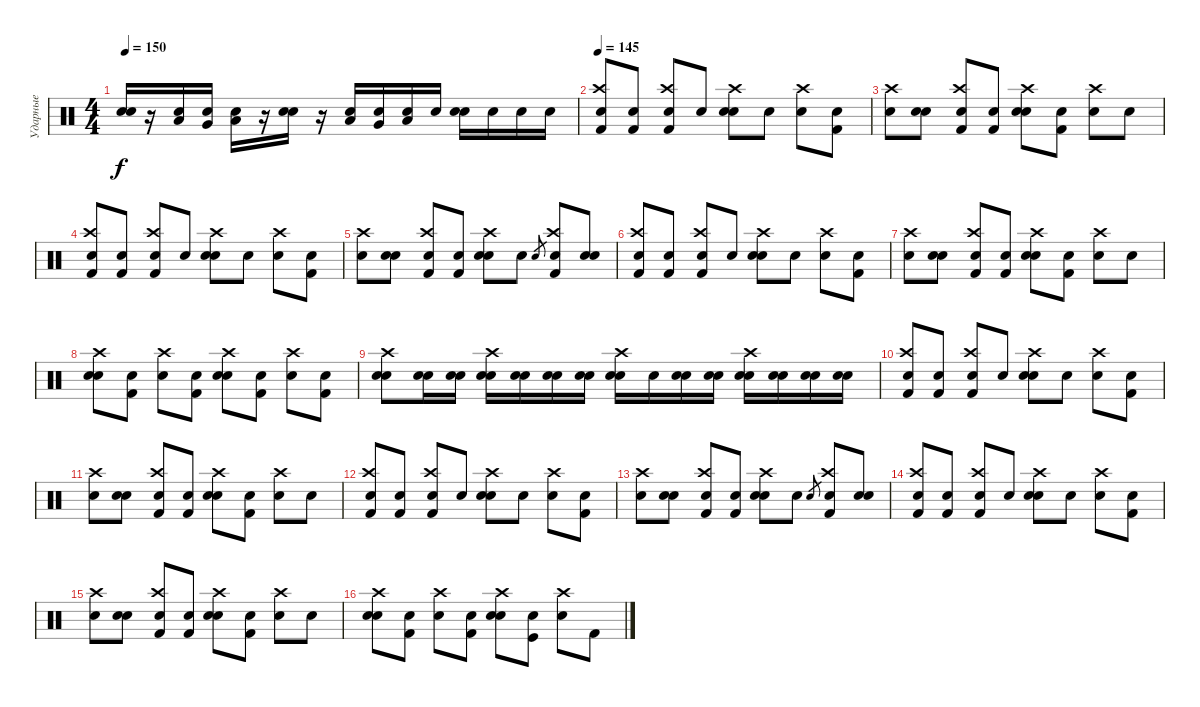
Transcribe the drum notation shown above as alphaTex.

\track ("Ударные" "Ударные") {instrument percussion}
\staff {score}
\articulation defaults
\ts (4 4)
\tempo 150
\clef neutral
\ks c
("Snare (hit) 2" "Snare (hit)"{x}).16{dy f} r.16 ("Low Tom (hit)" "Snare (hit)"{x}).16 ("Very Low Tom (hit)" "Snare (hit)"{x}).16 ("Low Floor Tom (hit)" "Snare (hit)"{x}).16 r.16 ("Snare (hit) 2" "Snare (hit)"{x}).16 r.16 ("Low Tom (hit)" "Snare (hit)"{x}).16 ("Very Low Tom (hit)" "Snare (hit)"{x}).16 ("Low Floor Tom (hit)" "Snare (hit)"{x}).16 "Snare (hit)"{x}.16 ("Snare (hit) 2" "Snare (hit)"{x}).16 "Snare (hit)"{x}.16 "Snare (hit)"{x}.16 "Snare (hit)"{x}.16 |
\tempo 145
("Crash high (hit)" "Kick (hit) 2" "Snare (hit)"{x}).8 ("Kick (hit) 2" "Snare (hit)"{x}).8 ("Crash high (hit)" "Kick (hit) 2" "Snare (hit)"{x}).8 "Snare (hit)"{x}.8 ("Crash high (hit)" "Snare (hit) 2" "Snare (hit)"{x}).8 "Snare (hit)"{x}.8 ("Crash high (hit)" "Snare (hit)"{x}).8 ("Kick (hit) 2" "Snare (hit)"{x}).8 |
("Crash high (hit)" "Snare (hit)"{x}).8 ("Snare (hit) 2" "Snare (hit)"{x}).8 ("Crash high (hit)" "Kick (hit) 2" "Snare (hit)"{x}).8 ("Kick (hit) 2" "Snare (hit)"{x}).8 ("Crash high (hit)" "Snare (hit) 2" "Snare (hit)"{x}).8 ("Kick (hit) 2" "Snare (hit)"{x}).8 ("Crash high (hit)" "Snare (hit)"{x}).8 "Snare (hit)"{x}.8 |
("Crash high (hit)" "Kick (hit) 2" "Snare (hit)"{x}).8 ("Kick (hit) 2" "Snare (hit)"{x}).8 ("Crash high (hit)" "Kick (hit) 2" "Snare (hit)"{x}).8 "Snare (hit)"{x}.8 ("Crash high (hit)" "Snare (hit) 2" "Snare (hit)"{x}).8 "Snare (hit)"{x}.8 ("Crash high (hit)" "Snare (hit)"{x}).8 ("Kick (hit) 2" "Snare (hit)"{x}).8 |
("Crash high (hit)" "Snare (hit)"{x}).8 ("Snare (hit) 2" "Snare (hit)"{x}).8 ("Crash high (hit)" "Kick (hit) 2" "Snare (hit)"{x}).8 ("Kick (hit) 2" "Snare (hit)"{x}).8 ("Crash high (hit)" "Snare (hit) 2" "Snare (hit)"{x}).8 "Snare (hit)"{x}.8 "Snare (hit) 2".8{gr} ("Crash high (hit)" "Kick (hit) 2" "Snare (hit)"{x}).8 ("Snare (hit) 2" "Snare (hit)"{x}).8 |
("Crash high (hit)" "Kick (hit) 2" "Snare (hit)"{x}).8 ("Kick (hit) 2" "Snare (hit)"{x}).8 ("Crash high (hit)" "Kick (hit) 2" "Snare (hit)"{x}).8 "Snare (hit)"{x}.8 ("Crash high (hit)" "Snare (hit) 2" "Snare (hit)"{x}).8 "Snare (hit)"{x}.8 ("Crash high (hit)" "Snare (hit)"{x}).8 ("Kick (hit) 2" "Snare (hit)"{x}).8 |
("Crash high (hit)" "Snare (hit)"{x}).8 ("Snare (hit) 2" "Snare (hit)"{x}).8 ("Crash high (hit)" "Kick (hit) 2" "Snare (hit)"{x}).8 ("Kick (hit) 2" "Snare (hit)"{x}).8 ("Crash high (hit)" "Snare (hit) 2" "Snare (hit)"{x}).8 ("Kick (hit) 2" "Snare (hit)"{x}).8 ("Crash high (hit)" "Snare (hit)"{x}).8 "Snare (hit)"{x}.8 |
("Crash high (hit)" "Snare (hit) 2" "Snare (hit)"{x}).8 ("Kick (hit) 2" "Snare (hit)"{x}).8 ("Crash high (hit)" "Snare (hit)"{x}).8 ("Kick (hit) 2" "Snare (hit)"{x}).8 ("Crash high (hit)" "Snare (hit) 2" "Snare (hit)"{x}).8 ("Kick (hit) 2" "Snare (hit)"{x}).8 ("Crash high (hit)" "Snare (hit)"{x}).8 ("Kick (hit) 2" "Snare (hit)"{x}).8 |
("Crash high (hit)" "Snare (hit) 2" "Snare (hit)"{x}).8 ("Snare (hit) 2" "Snare (hit)"{x}).16 ("Snare (hit) 2" "Snare (hit)"{x}).16 ("Crash high (hit)" "Snare (hit) 2" "Snare (hit)"{x}).16 ("Snare (hit) 2" "Snare (hit)"{x}).16 ("Snare (hit) 2" "Snare (hit)"{x}).16 ("Snare (hit) 2" "Snare (hit)"{x}).16 ("Crash high (hit)" "Snare (hit) 2" "Snare (hit)"{x}).16 "Snare (hit)"{x}.16 ("Snare (hit) 2" "Snare (hit)"{x}).16 ("Snare (hit) 2" "Snare (hit)"{x}).16 ("Crash high (hit)" "Snare (hit) 2" "Snare (hit)"{x}).16 ("Snare (hit) 2" "Snare (hit)"{x}).16 ("Snare (hit) 2" "Snare (hit)"{x}).16 ("Snare (hit) 2" "Snare (hit)"{x}).16 |
("Crash high (hit)" "Kick (hit) 2" "Snare (hit)"{x}).8 ("Kick (hit) 2" "Snare (hit)"{x}).8 ("Crash high (hit)" "Kick (hit) 2" "Snare (hit)"{x}).8 "Snare (hit)"{x}.8 ("Crash high (hit)" "Snare (hit) 2" "Snare (hit)"{x}).8 "Snare (hit)"{x}.8 ("Crash high (hit)" "Snare (hit)"{x}).8 ("Kick (hit) 2" "Snare (hit)"{x}).8 |
("Crash high (hit)" "Snare (hit)"{x}).8 ("Snare (hit) 2" "Snare (hit)"{x}).8 ("Crash high (hit)" "Kick (hit) 2" "Snare (hit)"{x}).8 ("Kick (hit) 2" "Snare (hit)"{x}).8 ("Crash high (hit)" "Snare (hit) 2" "Snare (hit)"{x}).8 ("Kick (hit) 2" "Snare (hit)"{x}).8 ("Crash high (hit)" "Snare (hit)"{x}).8 "Snare (hit)"{x}.8 |
("Crash high (hit)" "Kick (hit) 2" "Snare (hit)"{x}).8 ("Kick (hit) 2" "Snare (hit)"{x}).8 ("Crash high (hit)" "Kick (hit) 2" "Snare (hit)"{x}).8 "Snare (hit)"{x}.8 ("Crash high (hit)" "Snare (hit) 2" "Snare (hit)"{x}).8 "Snare (hit)"{x}.8 ("Crash high (hit)" "Snare (hit)"{x}).8 ("Kick (hit) 2" "Snare (hit)"{x}).8 |
("Crash high (hit)" "Snare (hit)"{x}).8 ("Snare (hit) 2" "Snare (hit)"{x}).8 ("Crash high (hit)" "Kick (hit) 2" "Snare (hit)"{x}).8 ("Kick (hit) 2" "Snare (hit)"{x}).8 ("Crash high (hit)" "Snare (hit) 2" "Snare (hit)"{x}).8 "Snare (hit)"{x}.8 "Snare (hit) 2".8{gr} ("Crash high (hit)" "Kick (hit) 2" "Snare (hit)"{x}).8 ("Snare (hit) 2" "Snare (hit)"{x}).8 |
("Crash high (hit)" "Kick (hit) 2" "Snare (hit)"{x}).8 ("Kick (hit) 2" "Snare (hit)"{x}).8 ("Crash high (hit)" "Kick (hit) 2" "Snare (hit)"{x}).8 "Snare (hit)"{x}.8 ("Crash high (hit)" "Snare (hit) 2" "Snare (hit)"{x}).8 "Snare (hit)"{x}.8 ("Crash high (hit)" "Snare (hit)"{x}).8 ("Kick (hit) 2" "Snare (hit)"{x}).8 |
("Crash high (hit)" "Snare (hit)"{x}).8 ("Snare (hit) 2" "Snare (hit)"{x}).8 ("Crash high (hit)" "Kick (hit) 2" "Snare (hit)"{x}).8 ("Kick (hit) 2" "Snare (hit)"{x}).8 ("Crash high (hit)" "Snare (hit) 2" "Snare (hit)"{x}).8 ("Kick (hit) 2" "Snare (hit)"{x}).8 ("Crash high (hit)" "Snare (hit)"{x}).8 "Snare (hit)"{x}.8 |
("Crash high (hit)" "Snare (hit) 2" "Snare (hit)"{x}).8 ("Kick (hit) 2" "Snare (hit)"{x}).8 ("Crash high (hit)" "Snare (hit)"{x}).8 ("Kick (hit) 2" "Snare (hit)"{x}).8 ("Crash high (hit)" "Snare (hit) 2" "Snare (hit)"{x}).8 ("Kick (hit)" "Snare (hit)"{x}).8 ("Crash high (hit)" "Snare (hit)"{x}).8 "Kick (hit) 2".8
